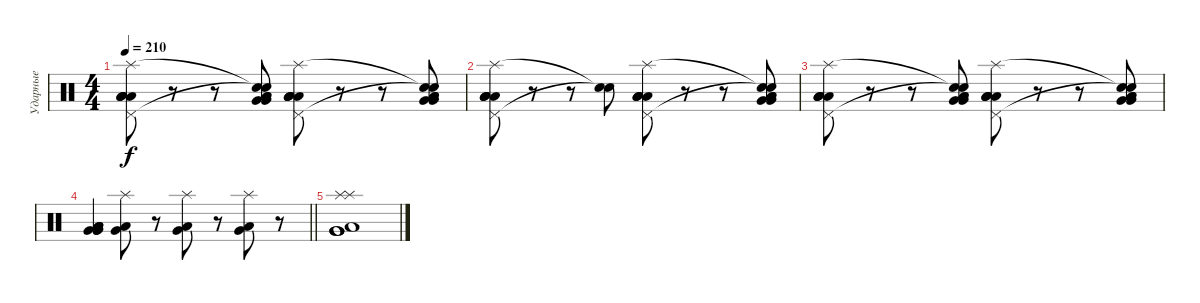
\track ("Ударные" "Ударные") {instrument percussion}
\staff {score}
\articulation defaults
\ts (4 4)
\tempo 210
\clef neutral
\ks c
("Splash (hit)" "Pedal Hi-Hat (hit)" "Low Tom (hit)" "Low Tom (hit)" "Low Tom (hit)" "Low Tom (hit)").8{dy f} r.8 r.8 ("Snare (hit)"{t} "Snare (hit)"{t} "Very Low Tom (hit)" "Very Low Tom (hit)" "Low Tom (hit)" "Low Tom (hit)").8 ("Splash (hit)" "Pedal Hi-Hat (hit)" "Low Tom (hit)" "Low Tom (hit)" "Low Tom (hit)" "Low Tom (hit)").8 r.8 r.8 ("Snare (hit)"{t} "Snare (hit)"{t} "Very Low Tom (hit)" "Very Low Tom (hit)" "Low Tom (hit)" "Low Tom (hit)").8 |
("Splash (hit)" "Pedal Hi-Hat (hit)" "Low Tom (hit)" "Low Tom (hit)" "Low Tom (hit)" "Low Tom (hit)").8 r.8 r.8 ("Snare (hit)"{t} "Snare (hit)"{t}).8 ("Splash (hit)" "Pedal Hi-Hat (hit)" "Low Tom (hit)" "Low Tom (hit)" "Low Tom (hit)" "Low Tom (hit)").8 r.8 r.8 ("Snare (hit)"{t} "Snare (hit)"{t} "Very Low Tom (hit)" "Very Low Tom (hit)" "Low Tom (hit)" "Low Tom (hit)").8 |
("Splash (hit)" "Pedal Hi-Hat (hit)" "Low Tom (hit)" "Low Tom (hit)" "Low Tom (hit)" "Low Tom (hit)").8 r.8 r.8 ("Snare (hit)"{t} "Snare (hit)"{t} "Very Low Tom (hit)" "Very Low Tom (hit)" "Low Tom (hit)" "Low Tom (hit)").8 ("Splash (hit)" "Pedal Hi-Hat (hit)" "Low Tom (hit)" "Low Tom (hit)" "Low Tom (hit)" "Low Tom (hit)").8 r.8 r.8 ("Snare (hit)"{t} "Snare (hit)"{t} "Very Low Tom (hit)" "Very Low Tom (hit)" "Low Tom (hit)" "Low Tom (hit)").8 |
\barLineRight lightlight
("Very Low Tom (hit)" "Very Low Tom (hit)" "Very Low Tom (hit)" "Low Tom (hit)" "Low Tom (hit)" "Low Tom (hit)").4 ("Very Low Tom (hit)" "Low Tom (hit)" "Splash (hit)").8 r.8 ("Very Low Tom (hit)" "Low Tom (hit)" "Splash (hit)").8 r.8 ("Very Low Tom (hit)" "Low Tom (hit)" "Splash (hit)").8 r.8 |
("Very Low Tom (hit)" "Very Low Tom (hit)" "Very Low Tom (hit)" "Low Tom (hit)" "Splash (hit)" "Splash (hit)").1
